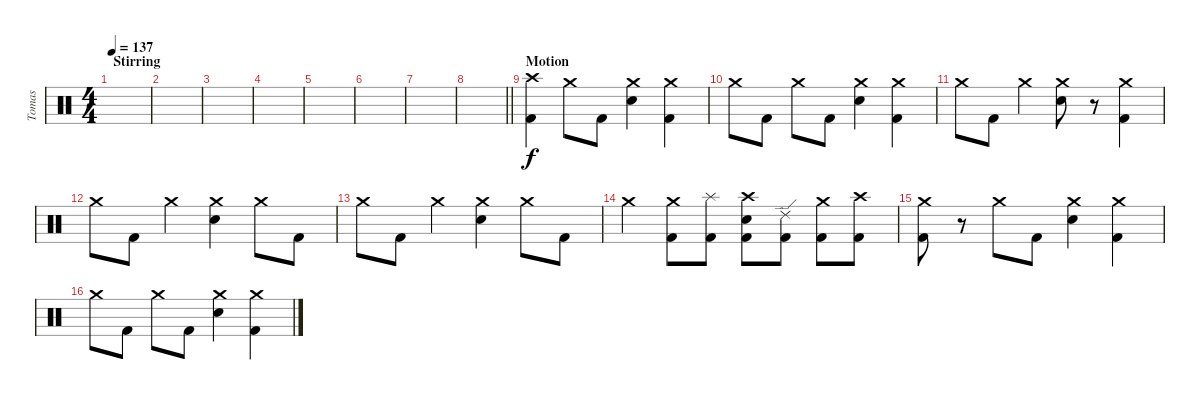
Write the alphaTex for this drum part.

\track ("Tomas" "Tomas") {instrument percussion}
\staff {score}
\articulation defaults
\ts (4 4)
\section ("" "Stirring")
\tempo 137
\clef neutral
\ks c
|
|
|
|
|
|
|
\barLineRight lightlight
|
\section ("" "Motion")
("Crash high (hit)" "Kick (hit) 2").4 "Crash medium (hit)".8 "Kick (hit) 2".8 ("Crash medium (hit)" "Electric Snare (hit)").4 ("Crash medium (hit)" "Kick (hit) 2").4 |
"Crash medium (hit)".8 "Kick (hit) 2".8 "Crash medium (hit)".8 "Kick (hit) 2".8 ("Crash medium (hit)" "Electric Snare (hit)").4 ("Crash medium (hit)" "Kick (hit) 2").4 |
"Crash medium (hit)".8 "Kick (hit) 2".8 "Crash medium (hit)".4 ("Crash medium (hit)" "Electric Snare (hit)").8 r.8 ("Crash medium (hit)" "Kick (hit) 2").4 |
"Crash medium (hit)".8 "Kick (hit) 2".8 "Crash medium (hit)".4 ("Crash medium (hit)" "Electric Snare (hit)").4 "Crash medium (hit)".8 "Kick (hit) 2".8 |
"Crash medium (hit)".8 "Kick (hit) 2".8 "Crash medium (hit)".4 ("Crash medium (hit)" "Electric Snare (hit)").4 "Crash medium (hit)".8 "Kick (hit) 2".8 |
"Crash medium (hit)".4 ("Crash medium (hit)" "Kick (hit) 2").8 ("Splash (hit)" "Kick (hit) 2").8 ("Crash high (hit)" "Electric Snare (hit)" "Kick (hit) 2").8 ("Ride (edge) 2" "Kick (hit) 2").8 ("Crash medium (hit)" "Kick (hit) 2").8 ("Crash high (hit)" "Kick (hit) 2").8 |
("Crash medium (hit)" "Kick (hit) 2").8 r.8 "Crash medium (hit)".8 "Kick (hit) 2".8 ("Crash medium (hit)" "Electric Snare (hit)").4 ("Crash medium (hit)" "Kick (hit) 2").4 |
"Crash medium (hit)".8 "Kick (hit) 2".8 "Crash medium (hit)".8 "Kick (hit) 2".8 ("Crash medium (hit)" "Electric Snare (hit)").4 ("Crash medium (hit)" "Kick (hit) 2").4
